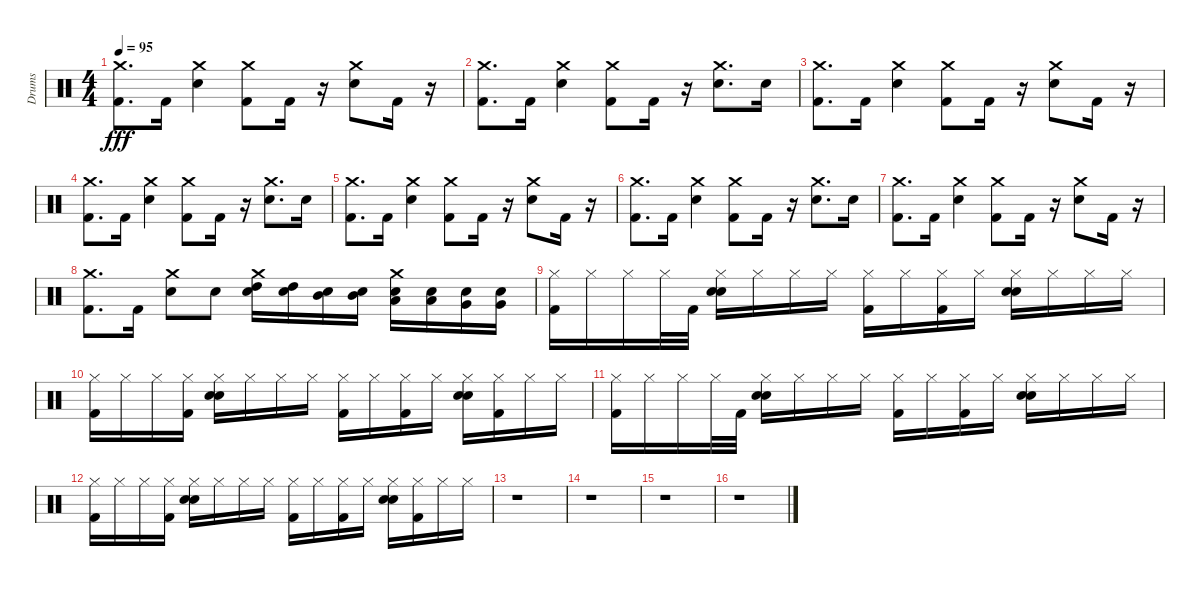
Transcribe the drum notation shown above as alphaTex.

\track ("Drums" "Drums") {instrument percussion}
\staff {score}
\articulation defaults
\ts (4 4)
\tempo 95
\clef neutral
\ks c
("Crash medium (hit)" "Kick (hit) 2").8{d dy fff} "Kick (hit) 2".16 ("Crash medium (hit)" "Electric Snare (hit)").4 ("Crash medium (hit)" "Kick (hit) 2").8 "Kick (hit) 2".16 r.16 ("Crash medium (hit)" "Electric Snare (hit)").8 "Kick (hit) 2".16 r.16 |
("Crash medium (hit)" "Kick (hit) 2").8{d} "Kick (hit) 2".16 ("Crash medium (hit)" "Electric Snare (hit)").4 ("Crash medium (hit)" "Kick (hit) 2").8 "Kick (hit) 2".16 r.16 ("Crash medium (hit)" "Electric Snare (hit)").8{d} "Electric Snare (hit)".16 |
("Crash medium (hit)" "Kick (hit) 2").8{d} "Kick (hit) 2".16 ("Crash medium (hit)" "Electric Snare (hit)").4 ("Crash medium (hit)" "Kick (hit) 2").8 "Kick (hit) 2".16 r.16 ("Crash medium (hit)" "Electric Snare (hit)").8 "Kick (hit) 2".16 r.16 |
("Crash medium (hit)" "Kick (hit) 2").8{d} "Kick (hit) 2".16 ("Crash medium (hit)" "Electric Snare (hit)").4 ("Crash medium (hit)" "Kick (hit) 2").8 "Kick (hit) 2".16 r.16 ("Crash medium (hit)" "Electric Snare (hit)").8{d} "Electric Snare (hit)".16 |
("Crash medium (hit)" "Kick (hit) 2").8{d} "Kick (hit) 2".16 ("Crash medium (hit)" "Electric Snare (hit)").4 ("Crash medium (hit)" "Kick (hit) 2").8 "Kick (hit) 2".16 r.16 ("Crash medium (hit)" "Electric Snare (hit)").8 "Kick (hit) 2".16 r.16 |
("Crash medium (hit)" "Kick (hit) 2").8{d} "Kick (hit) 2".16 ("Crash medium (hit)" "Electric Snare (hit)").4 ("Crash medium (hit)" "Kick (hit) 2").8 "Kick (hit) 2".16 r.16 ("Crash medium (hit)" "Electric Snare (hit)").8{d} "Electric Snare (hit)".16 |
("Crash medium (hit)" "Kick (hit) 2").8{d} "Kick (hit) 2".16 ("Crash medium (hit)" "Electric Snare (hit)").4 ("Crash medium (hit)" "Kick (hit) 2").8 "Kick (hit) 2".16 r.16 ("Crash medium (hit)" "Electric Snare (hit)").8 "Kick (hit) 2".16 r.16 |
("Crash medium (hit)" "Kick (hit) 2").8{d} "Kick (hit) 2".16 ("Crash medium (hit)" "Electric Snare (hit)").8 "Electric Snare (hit)".8 ("High Tom (hit)" "Electric Snare (hit)" "Crash medium (hit)").16 ("High Tom (hit)" "Electric Snare (hit)").16 ("Mid Tom (hit)" "Electric Snare (hit)").16 ("Mid Tom (hit)" "Electric Snare (hit)").16 ("Low Tom (hit)" "Electric Snare (hit)" "Crash medium (hit)").16 ("Low Tom (hit)" "Electric Snare (hit)").16 ("Very Low Tom (hit)" "Electric Snare (hit)").16 ("Very Low Tom (hit)" "Electric Snare (hit)").16 |
("Hi-Hat (closed)" "Kick (hit) 2").16 "Hi-Hat (closed)".16 "Hi-Hat (closed)".16 "Hi-Hat (closed)".32 "Kick (hit) 2".32 ("Hi-Hat (closed)" "Snare (hit) 2" "Electric Snare (hit)").16 "Hi-Hat (closed)".16 "Hi-Hat (closed)".16 "Hi-Hat (closed)".16 ("Hi-Hat (closed)" "Kick (hit) 2").16 "Hi-Hat (closed)".16 ("Hi-Hat (closed)" "Kick (hit) 2").16 "Hi-Hat (closed)".16 ("Hi-Hat (closed)" "Snare (hit) 2" "Electric Snare (hit)").16 "Hi-Hat (closed)".16 "Hi-Hat (closed)".16 "Hi-Hat (closed)".16 |
("Kick (hit) 2" "Hi-Hat (closed)").16 "Hi-Hat (closed)".16 "Hi-Hat (closed)".16 ("Kick (hit) 2" "Hi-Hat (closed)").16 ("Snare (hit) 2" "Electric Snare (hit)" "Hi-Hat (closed)").16 "Hi-Hat (closed)".16 "Hi-Hat (closed)".16 "Hi-Hat (closed)".16 ("Kick (hit) 2" "Hi-Hat (closed)").16 "Hi-Hat (closed)".16 ("Kick (hit) 2" "Hi-Hat (closed)").16 "Hi-Hat (closed)".16 ("Snare (hit) 2" "Electric Snare (hit)" "Hi-Hat (closed)").16 ("Kick (hit) 2" "Hi-Hat (closed)").16 "Hi-Hat (closed)".16 "Hi-Hat (closed)".16 |
("Hi-Hat (closed)" "Kick (hit) 2").16 "Hi-Hat (closed)".16 "Hi-Hat (closed)".16 "Hi-Hat (closed)".32 "Kick (hit) 2".32 ("Hi-Hat (closed)" "Snare (hit) 2" "Electric Snare (hit)").16 "Hi-Hat (closed)".16 "Hi-Hat (closed)".16 "Hi-Hat (closed)".16 ("Hi-Hat (closed)" "Kick (hit) 2").16 "Hi-Hat (closed)".16 ("Hi-Hat (closed)" "Kick (hit) 2").16 "Hi-Hat (closed)".16 ("Hi-Hat (closed)" "Snare (hit) 2" "Electric Snare (hit)").16 "Hi-Hat (closed)".16 "Hi-Hat (closed)".16 "Hi-Hat (closed)".16 |
("Kick (hit) 2" "Hi-Hat (closed)").16 "Hi-Hat (closed)".16 "Hi-Hat (closed)".16 ("Kick (hit) 2" "Hi-Hat (closed)").16 ("Snare (hit) 2" "Electric Snare (hit)" "Hi-Hat (closed)").16 "Hi-Hat (closed)".16 "Hi-Hat (closed)".16 "Hi-Hat (closed)".16 ("Kick (hit) 2" "Hi-Hat (closed)").16 "Hi-Hat (closed)".16 ("Kick (hit) 2" "Hi-Hat (closed)").16 "Hi-Hat (closed)".16 ("Snare (hit) 2" "Electric Snare (hit)" "Hi-Hat (closed)").16 ("Kick (hit) 2" "Hi-Hat (closed)").16 "Hi-Hat (closed)".16 "Hi-Hat (closed)".16 |
r.1 |
r.1 |
r.1 |
r.1
